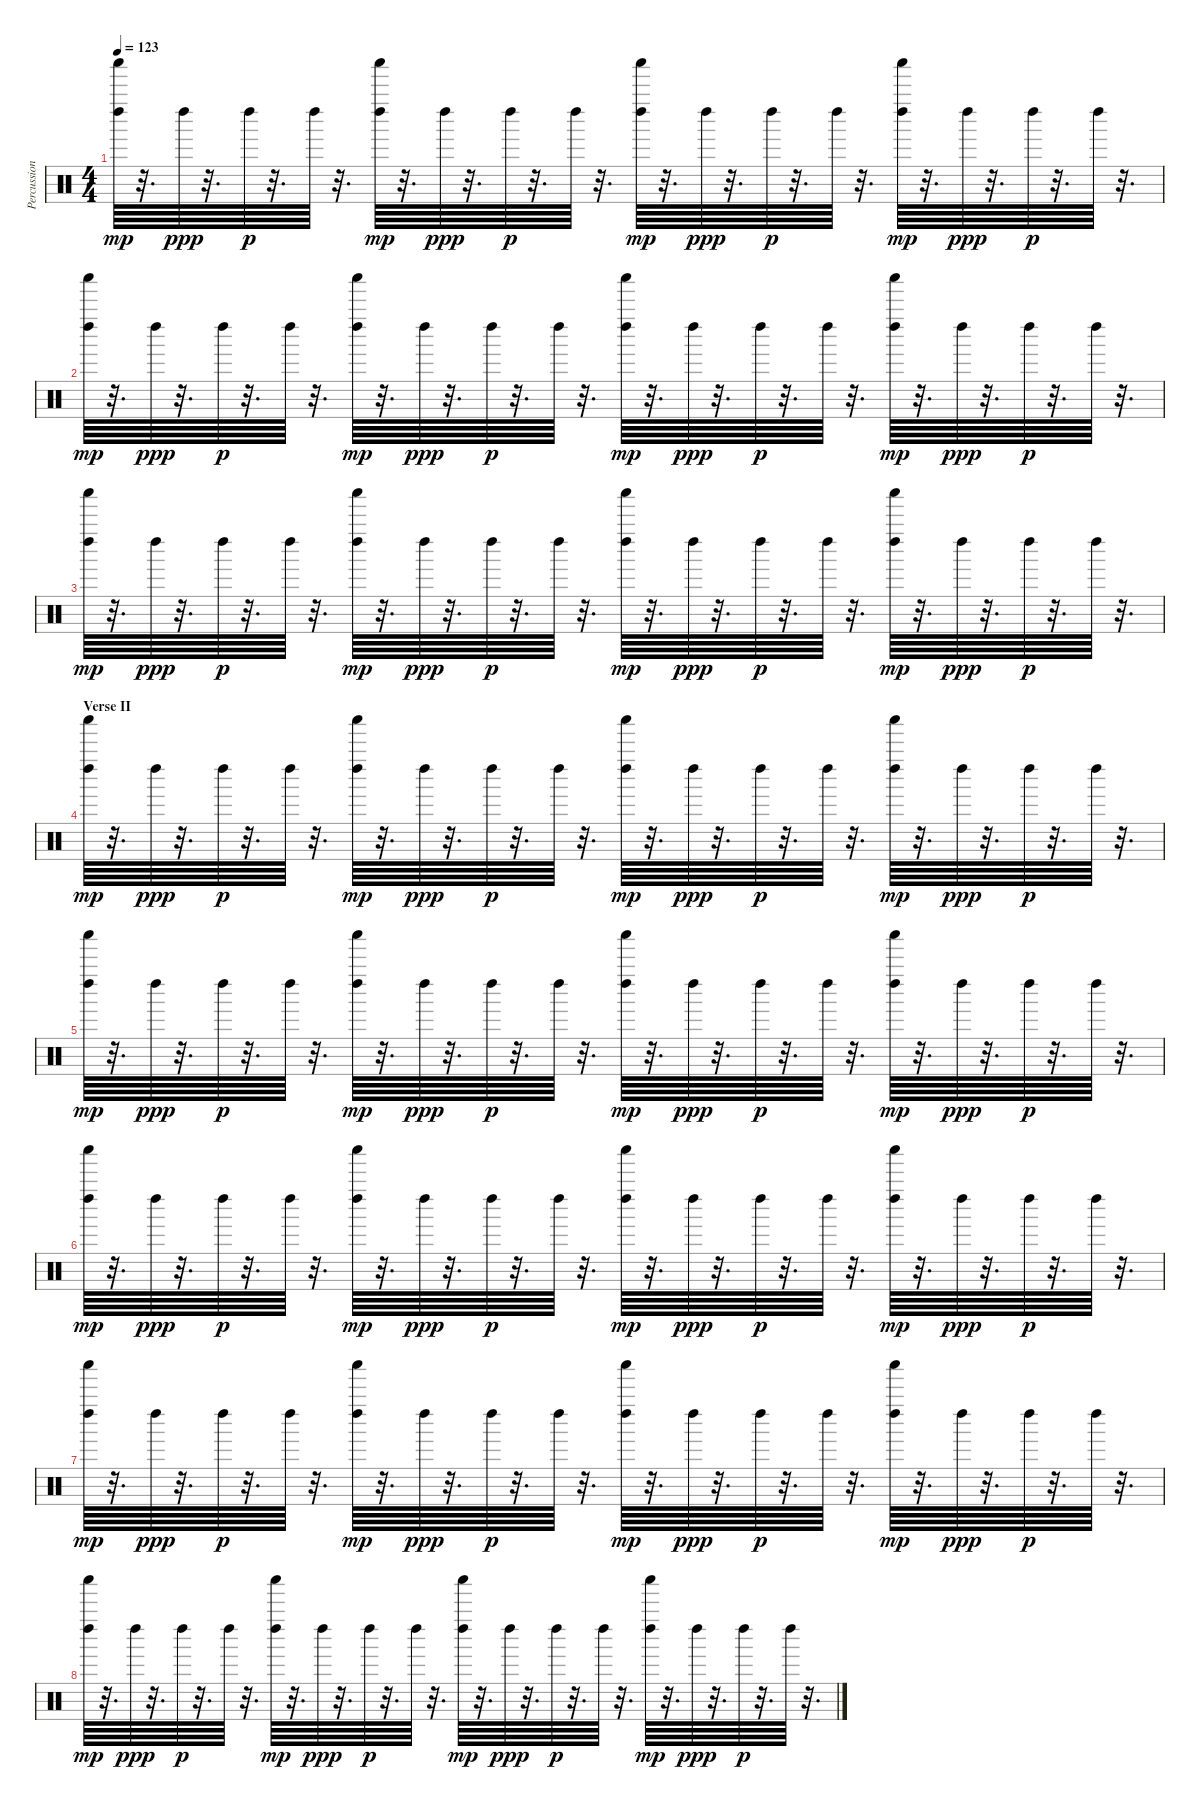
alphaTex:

\track ("Percussion" "Percussion") {instrument percussion}
\staff {score}
\articulation defaults
\ts (4 4)
\tempo 123
\clef neutral
\ks c
("Left Maraca (hit)" "Shaker (hit)").64{dy mp} r.32{d} "Left Maraca (hit)".64{dy ppp} r.32{d} "Left Maraca (hit)".64{dy p} r.32{d} "Left Maraca (hit)".64 r.32{d} ("Left Maraca (hit)" "Shaker (hit)").64{dy mp} r.32{d} "Left Maraca (hit)".64{dy ppp} r.32{d} "Left Maraca (hit)".64{dy p} r.32{d} "Left Maraca (hit)".64 r.32{d} ("Left Maraca (hit)" "Shaker (hit)").64{dy mp} r.32{d} "Left Maraca (hit)".64{dy ppp} r.32{d} "Left Maraca (hit)".64{dy p} r.32{d} "Left Maraca (hit)".64 r.32{d} ("Left Maraca (hit)" "Shaker (hit)").64{dy mp} r.32{d} "Left Maraca (hit)".64{dy ppp} r.32{d} "Left Maraca (hit)".64{dy p} r.32{d} "Left Maraca (hit)".64 r.32{d} |
("Left Maraca (hit)" "Shaker (hit)").64{dy mp} r.32{d} "Left Maraca (hit)".64{dy ppp} r.32{d} "Left Maraca (hit)".64{dy p} r.32{d} "Left Maraca (hit)".64 r.32{d} ("Left Maraca (hit)" "Shaker (hit)").64{dy mp} r.32{d} "Left Maraca (hit)".64{dy ppp} r.32{d} "Left Maraca (hit)".64{dy p} r.32{d} "Left Maraca (hit)".64 r.32{d} ("Left Maraca (hit)" "Shaker (hit)").64{dy mp} r.32{d} "Left Maraca (hit)".64{dy ppp} r.32{d} "Left Maraca (hit)".64{dy p} r.32{d} "Left Maraca (hit)".64 r.32{d} ("Left Maraca (hit)" "Shaker (hit)").64{dy mp} r.32{d} "Left Maraca (hit)".64{dy ppp} r.32{d} "Left Maraca (hit)".64{dy p} r.32{d} "Left Maraca (hit)".64 r.32{d} |
("Left Maraca (hit)" "Shaker (hit)").64{dy mp} r.32{d} "Left Maraca (hit)".64{dy ppp} r.32{d} "Left Maraca (hit)".64{dy p} r.32{d} "Left Maraca (hit)".64 r.32{d} ("Left Maraca (hit)" "Shaker (hit)").64{dy mp} r.32{d} "Left Maraca (hit)".64{dy ppp} r.32{d} "Left Maraca (hit)".64{dy p} r.32{d} "Left Maraca (hit)".64 r.32{d} ("Left Maraca (hit)" "Shaker (hit)").64{dy mp} r.32{d} "Left Maraca (hit)".64{dy ppp} r.32{d} "Left Maraca (hit)".64{dy p} r.32{d} "Left Maraca (hit)".64 r.32{d} ("Left Maraca (hit)" "Shaker (hit)").64{dy mp} r.32{d} "Left Maraca (hit)".64{dy ppp} r.32{d} "Left Maraca (hit)".64{dy p} r.32{d} "Left Maraca (hit)".64 r.32{d} |
\section ("" "Verse II")
("Left Maraca (hit)" "Shaker (hit)").64{dy mp} r.32{d} "Left Maraca (hit)".64{dy ppp} r.32{d} "Left Maraca (hit)".64{dy p} r.32{d} "Left Maraca (hit)".64 r.32{d} ("Left Maraca (hit)" "Shaker (hit)").64{dy mp} r.32{d} "Left Maraca (hit)".64{dy ppp} r.32{d} "Left Maraca (hit)".64{dy p} r.32{d} "Left Maraca (hit)".64 r.32{d} ("Left Maraca (hit)" "Shaker (hit)").64{dy mp} r.32{d} "Left Maraca (hit)".64{dy ppp} r.32{d} "Left Maraca (hit)".64{dy p} r.32{d} "Left Maraca (hit)".64 r.32{d} ("Left Maraca (hit)" "Shaker (hit)").64{dy mp} r.32{d} "Left Maraca (hit)".64{dy ppp} r.32{d} "Left Maraca (hit)".64{dy p} r.32{d} "Left Maraca (hit)".64 r.32{d} |
("Left Maraca (hit)" "Shaker (hit)").64{dy mp} r.32{d} "Left Maraca (hit)".64{dy ppp} r.32{d} "Left Maraca (hit)".64{dy p} r.32{d} "Left Maraca (hit)".64 r.32{d} ("Left Maraca (hit)" "Shaker (hit)").64{dy mp} r.32{d} "Left Maraca (hit)".64{dy ppp} r.32{d} "Left Maraca (hit)".64{dy p} r.32{d} "Left Maraca (hit)".64 r.32{d} ("Left Maraca (hit)" "Shaker (hit)").64{dy mp} r.32{d} "Left Maraca (hit)".64{dy ppp} r.32{d} "Left Maraca (hit)".64{dy p} r.32{d} "Left Maraca (hit)".64 r.32{d} ("Left Maraca (hit)" "Shaker (hit)").64{dy mp} r.32{d} "Left Maraca (hit)".64{dy ppp} r.32{d} "Left Maraca (hit)".64{dy p} r.32{d} "Left Maraca (hit)".64 r.32{d} |
("Left Maraca (hit)" "Shaker (hit)").64{dy mp} r.32{d} "Left Maraca (hit)".64{dy ppp} r.32{d} "Left Maraca (hit)".64{dy p} r.32{d} "Left Maraca (hit)".64 r.32{d} ("Left Maraca (hit)" "Shaker (hit)").64{dy mp} r.32{d} "Left Maraca (hit)".64{dy ppp} r.32{d} "Left Maraca (hit)".64{dy p} r.32{d} "Left Maraca (hit)".64 r.32{d} ("Left Maraca (hit)" "Shaker (hit)").64{dy mp} r.32{d} "Left Maraca (hit)".64{dy ppp} r.32{d} "Left Maraca (hit)".64{dy p} r.32{d} "Left Maraca (hit)".64 r.32{d} ("Left Maraca (hit)" "Shaker (hit)").64{dy mp} r.32{d} "Left Maraca (hit)".64{dy ppp} r.32{d} "Left Maraca (hit)".64{dy p} r.32{d} "Left Maraca (hit)".64 r.32{d} |
("Left Maraca (hit)" "Shaker (hit)").64{dy mp} r.32{d} "Left Maraca (hit)".64{dy ppp} r.32{d} "Left Maraca (hit)".64{dy p} r.32{d} "Left Maraca (hit)".64 r.32{d} ("Left Maraca (hit)" "Shaker (hit)").64{dy mp} r.32{d} "Left Maraca (hit)".64{dy ppp} r.32{d} "Left Maraca (hit)".64{dy p} r.32{d} "Left Maraca (hit)".64 r.32{d} ("Left Maraca (hit)" "Shaker (hit)").64{dy mp} r.32{d} "Left Maraca (hit)".64{dy ppp} r.32{d} "Left Maraca (hit)".64{dy p} r.32{d} "Left Maraca (hit)".64 r.32{d} ("Left Maraca (hit)" "Shaker (hit)").64{dy mp} r.32{d} "Left Maraca (hit)".64{dy ppp} r.32{d} "Left Maraca (hit)".64{dy p} r.32{d} "Left Maraca (hit)".64 r.32{d} |
("Left Maraca (hit)" "Shaker (hit)").64{dy mp} r.32{d} "Left Maraca (hit)".64{dy ppp} r.32{d} "Left Maraca (hit)".64{dy p} r.32{d} "Left Maraca (hit)".64 r.32{d} ("Left Maraca (hit)" "Shaker (hit)").64{dy mp} r.32{d} "Left Maraca (hit)".64{dy ppp} r.32{d} "Left Maraca (hit)".64{dy p} r.32{d} "Left Maraca (hit)".64 r.32{d} ("Left Maraca (hit)" "Shaker (hit)").64{dy mp} r.32{d} "Left Maraca (hit)".64{dy ppp} r.32{d} "Left Maraca (hit)".64{dy p} r.32{d} "Left Maraca (hit)".64 r.32{d} ("Left Maraca (hit)" "Shaker (hit)").64{dy mp} r.32{d} "Left Maraca (hit)".64{dy ppp} r.32{d} "Left Maraca (hit)".64{dy p} r.32{d} "Left Maraca (hit)".64 r.32{d}
